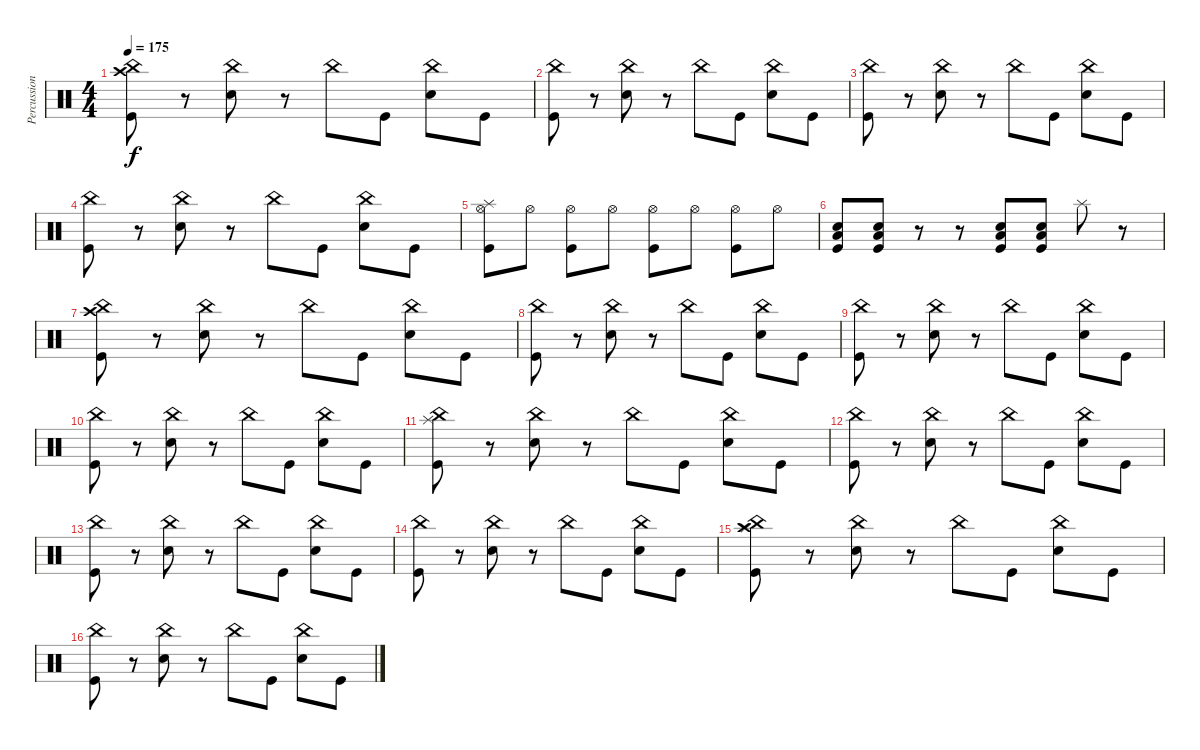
\track ("Percussion" "Percussion") {instrument percussion}
\staff {score}
\articulation defaults
\ts (4 4)
\tempo 175
\clef neutral
\ks c
("Crash high (hit)" "China (hit)" "Kick (hit)").8{dy f} r.8 ("China (hit)" "Snare (hit) 2").8 r.8 "China (hit)".8 "Kick (hit)".8 ("China (hit)" "Snare (hit) 2").8 "Kick (hit)".8 |
("China (hit)" "Kick (hit)").8 r.8 ("China (hit)" "Snare (hit) 2").8 r.8 "China (hit)".8 "Kick (hit)".8 ("China (hit)" "Snare (hit) 2").8 "Kick (hit)".8 |
("China (hit)" "Kick (hit)").8 r.8 ("China (hit)" "Snare (hit) 2").8 r.8 "China (hit)".8 "Kick (hit)".8 ("China (hit)" "Snare (hit) 2").8 "Kick (hit)".8 |
("China (hit)" "Kick (hit)").8 r.8 ("China (hit)" "Snare (hit) 2").8 r.8 "China (hit)".8 "Kick (hit)".8 ("China (hit)" "Snare (hit) 2").8 "Kick (hit)".8 |
("Splash (hit)" "Kick (hit)" "Hi-Hat (open)").8 "Hi-Hat (open)".8 ("Kick (hit)" "Hi-Hat (open)").8 "Hi-Hat (open)".8 ("Kick (hit)" "Hi-Hat (open)").8 "Hi-Hat (open)".8 ("Kick (hit)" "Hi-Hat (open)").8 "Hi-Hat (open)".8 |
("Kick (hit)" "Low Tom (hit)" "Snare (hit) 2").8 ("Kick (hit)" "Low Tom (hit)" "Snare (hit) 2").8 r.8 r.8 ("Kick (hit)" "Low Tom (hit)" "Snare (hit) 2").8 ("Kick (hit)" "Low Tom (hit)" "Snare (hit) 2").8 "Splash (hit)".8 r.8 |
("Crash high (hit)" "China (hit)" "Kick (hit)").8 r.8 ("China (hit)" "Snare (hit) 2").8 r.8 "China (hit)".8 "Kick (hit)".8 ("China (hit)" "Snare (hit) 2").8 "Kick (hit)".8 |
("China (hit)" "Kick (hit)").8 r.8 ("China (hit)" "Snare (hit) 2").8 r.8 "China (hit)".8 "Kick (hit)".8 ("China (hit)" "Snare (hit) 2").8 "Kick (hit)".8 |
("China (hit)" "Kick (hit)").8 r.8 ("China (hit)" "Snare (hit) 2").8 r.8 "China (hit)".8 "Kick (hit)".8 ("China (hit)" "Snare (hit) 2").8 "Kick (hit)".8 |
("China (hit)" "Kick (hit)").8 r.8 ("China (hit)" "Snare (hit) 2").8 r.8 "China (hit)".8 "Kick (hit)".8 ("China (hit)" "Snare (hit) 2").8 "Kick (hit)".8 |
("Splash (hit)" "China (hit)" "Kick (hit)").8 r.8 ("China (hit)" "Snare (hit) 2").8 r.8 "China (hit)".8 "Kick (hit)".8 ("China (hit)" "Snare (hit) 2").8 "Kick (hit)".8 |
("China (hit)" "Kick (hit)").8 r.8 ("China (hit)" "Snare (hit) 2").8 r.8 "China (hit)".8 "Kick (hit)".8 ("China (hit)" "Snare (hit) 2").8 "Kick (hit)".8 |
("China (hit)" "Kick (hit)").8 r.8 ("China (hit)" "Snare (hit) 2").8 r.8 "China (hit)".8 "Kick (hit)".8 ("China (hit)" "Snare (hit) 2").8 "Kick (hit)".8 |
("China (hit)" "Kick (hit)").8 r.8 ("China (hit)" "Snare (hit) 2").8 r.8 "China (hit)".8 "Kick (hit)".8 ("China (hit)" "Snare (hit) 2").8 "Kick (hit)".8 |
("Splash (hit)" "Crash high (hit)" "China (hit)" "Kick (hit)").8 r.8 ("China (hit)" "Snare (hit) 2").8 r.8 "China (hit)".8 "Kick (hit)".8 ("China (hit)" "Snare (hit) 2").8 "Kick (hit)".8 |
("China (hit)" "Kick (hit)").8 r.8 ("China (hit)" "Snare (hit) 2").8 r.8 "China (hit)".8 "Kick (hit)".8 ("China (hit)" "Snare (hit) 2").8 "Kick (hit)".8
